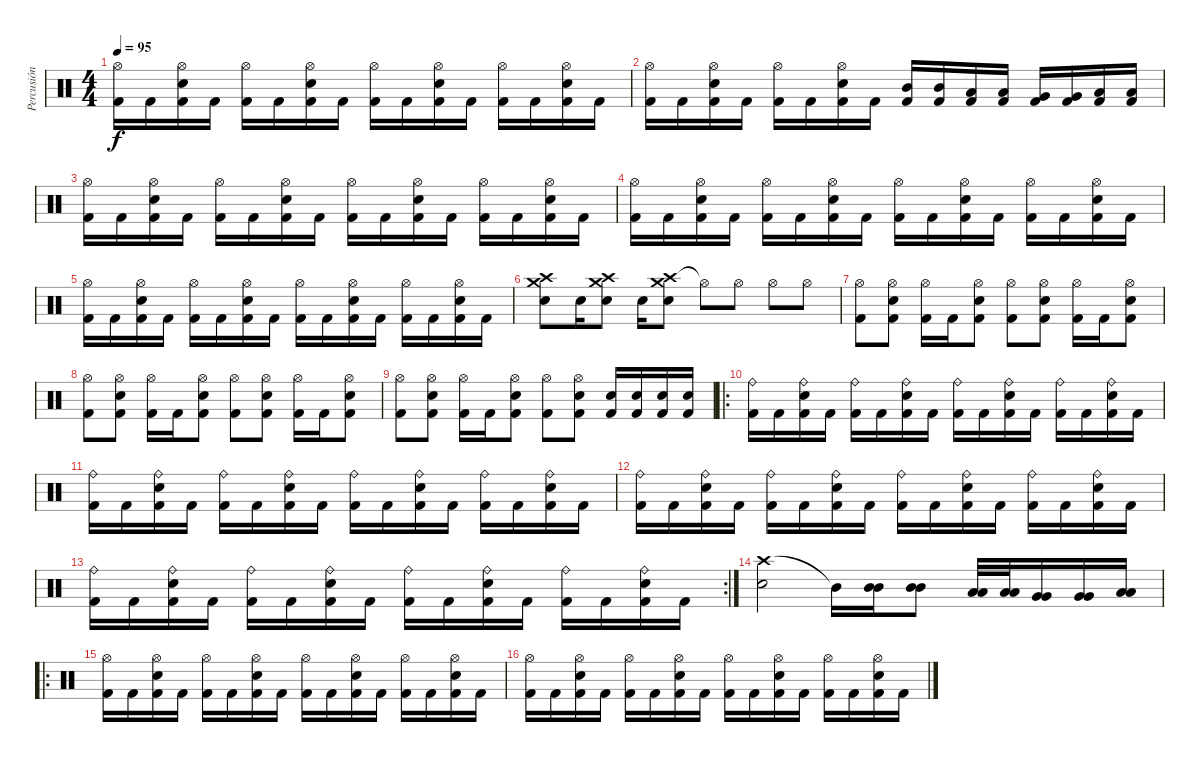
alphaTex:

\track ("Percusión" "Percusión") {instrument percussion}
\staff {score}
\articulation defaults
\ts (4 4)
\tempo 95
\clef neutral
\ks c
("Kick (hit) 2" "Hi-Hat (open)").16{dy f} "Kick (hit) 2".16 ("Kick (hit) 2" "Hi-Hat (open)" "Electric Snare (hit)").16 "Kick (hit) 2".16 ("Kick (hit) 2" "Hi-Hat (open)").16 "Kick (hit) 2".16 ("Kick (hit) 2" "Hi-Hat (open)" "Electric Snare (hit)").16 "Kick (hit) 2".16 ("Kick (hit) 2" "Hi-Hat (open)").16 "Kick (hit) 2".16 ("Kick (hit) 2" "Hi-Hat (open)" "Electric Snare (hit)").16 "Kick (hit) 2".16 ("Kick (hit) 2" "Hi-Hat (open)").16 "Kick (hit) 2".16 ("Kick (hit) 2" "Hi-Hat (open)" "Electric Snare (hit)").16 "Kick (hit) 2".16 |
("Kick (hit) 2" "Hi-Hat (open)").16 "Kick (hit) 2".16 ("Kick (hit) 2" "Hi-Hat (open)" "Electric Snare (hit)").16 "Kick (hit) 2".16 ("Kick (hit) 2" "Hi-Hat (open)").16 "Kick (hit) 2".16 ("Kick (hit) 2" "Hi-Hat (open)" "Electric Snare (hit)").16 "Kick (hit) 2".16 ("Kick (hit) 2" "Mid Tom (hit)").16 ("Kick (hit) 2" "Mid Tom (hit)").16 ("Kick (hit) 2" "Low Tom (hit)").16 ("Kick (hit) 2" "Low Tom (hit)").16 ("Kick (hit) 2" "Very Low Tom (hit)").16 ("Kick (hit) 2" "Very Low Tom (hit)").16 ("Kick (hit) 2" "Low Floor Tom (hit)").16 ("Kick (hit) 2" "Low Floor Tom (hit)").16 |
("Kick (hit) 2" "Hi-Hat (open)").16 "Kick (hit) 2".16 ("Kick (hit) 2" "Hi-Hat (open)" "Electric Snare (hit)").16 "Kick (hit) 2".16 ("Kick (hit) 2" "Hi-Hat (open)").16 "Kick (hit) 2".16 ("Kick (hit) 2" "Hi-Hat (open)" "Electric Snare (hit)").16 "Kick (hit) 2".16 ("Kick (hit) 2" "Hi-Hat (open)").16 "Kick (hit) 2".16 ("Kick (hit) 2" "Hi-Hat (open)" "Electric Snare (hit)").16 "Kick (hit) 2".16 ("Kick (hit) 2" "Hi-Hat (open)").16 "Kick (hit) 2".16 ("Kick (hit) 2" "Hi-Hat (open)" "Electric Snare (hit)").16 "Kick (hit) 2".16 |
("Kick (hit) 2" "Hi-Hat (open)").16 "Kick (hit) 2".16 ("Kick (hit) 2" "Hi-Hat (open)" "Electric Snare (hit)").16 "Kick (hit) 2".16 ("Kick (hit) 2" "Hi-Hat (open)").16 "Kick (hit) 2".16 ("Kick (hit) 2" "Hi-Hat (open)" "Electric Snare (hit)").16 "Kick (hit) 2".16 ("Kick (hit) 2" "Hi-Hat (open)").16 "Kick (hit) 2".16 ("Kick (hit) 2" "Hi-Hat (open)" "Electric Snare (hit)").16 "Kick (hit) 2".16 ("Kick (hit) 2" "Hi-Hat (open)").16 "Kick (hit) 2".16 ("Kick (hit) 2" "Hi-Hat (open)" "Electric Snare (hit)").16 "Kick (hit) 2".16 |
("Kick (hit) 2" "Hi-Hat (open)").16 "Kick (hit) 2".16 ("Kick (hit) 2" "Hi-Hat (open)" "Electric Snare (hit)").16 "Kick (hit) 2".16 ("Kick (hit) 2" "Hi-Hat (open)").16 "Kick (hit) 2".16 ("Kick (hit) 2" "Hi-Hat (open)" "Electric Snare (hit)").16 "Kick (hit) 2".16 ("Kick (hit) 2" "Hi-Hat (open)").16 "Kick (hit) 2".16 ("Kick (hit) 2" "Hi-Hat (open)" "Electric Snare (hit)").16 "Kick (hit) 2".16 ("Kick (hit) 2" "Hi-Hat (open)").16 "Kick (hit) 2".16 ("Kick (hit) 2" "Hi-Hat (open)" "Electric Snare (hit)").16 "Kick (hit) 2".16 |
("Crash high (hit)" "Electric Snare (hit)" "Crash medium (hit)").8 "Electric Snare (hit)".16 ("Crash high (hit)" "Electric Snare (hit)" "Crash medium (hit)").8 "Electric Snare (hit)".16 ("Crash high (hit)" "Electric Snare (hit)" "Crash medium (hit)").8 "Hi-Hat (open)"{t}.8 "Hi-Hat (open)".8 "Hi-Hat (open)".8 "Hi-Hat (open)".8 |
("Kick (hit) 2" "Hi-Hat (open)").8 ("Kick (hit) 2" "Hi-Hat (open)" "Electric Snare (hit)").8 ("Kick (hit) 2" "Hi-Hat (open)").16 "Kick (hit) 2".16 ("Kick (hit) 2" "Hi-Hat (open)" "Electric Snare (hit)").8 ("Kick (hit) 2" "Hi-Hat (open)").8 ("Kick (hit) 2" "Hi-Hat (open)" "Electric Snare (hit)").8 ("Kick (hit) 2" "Hi-Hat (open)").16 "Kick (hit) 2".16 ("Kick (hit) 2" "Hi-Hat (open)" "Electric Snare (hit)").8 |
("Kick (hit) 2" "Hi-Hat (open)").8 ("Kick (hit) 2" "Hi-Hat (open)" "Electric Snare (hit)").8 ("Kick (hit) 2" "Hi-Hat (open)").16 "Kick (hit) 2".16 ("Kick (hit) 2" "Hi-Hat (open)" "Electric Snare (hit)").8 ("Kick (hit) 2" "Hi-Hat (open)").8 ("Kick (hit) 2" "Hi-Hat (open)" "Electric Snare (hit)").8 ("Kick (hit) 2" "Hi-Hat (open)").16 "Kick (hit) 2".16 ("Kick (hit) 2" "Hi-Hat (open)" "Electric Snare (hit)").8 |
("Kick (hit) 2" "Hi-Hat (open)").8 ("Kick (hit) 2" "Hi-Hat (open)" "Electric Snare (hit)").8 ("Kick (hit) 2" "Hi-Hat (open)").16 "Kick (hit) 2".16 ("Kick (hit) 2" "Hi-Hat (open)" "Electric Snare (hit)").8 ("Kick (hit) 2" "Hi-Hat (open)").8 ("Kick (hit) 2" "Hi-Hat (open)" "Electric Snare (hit)").8 ("Kick (hit) 2" "Electric Snare (hit)").16 ("Kick (hit) 2" "Electric Snare (hit)").16 ("Kick (hit) 2" "Electric Snare (hit)").16 ("Kick (hit) 2" "Electric Snare (hit)").16 |
\ro
("Kick (hit) 2" "Ride (bell)").16 "Kick (hit) 2".16 ("Kick (hit) 2" "Ride (bell)" "Electric Snare (hit)").16 "Kick (hit) 2".16 ("Kick (hit) 2" "Ride (bell)").16 "Kick (hit) 2".16 ("Kick (hit) 2" "Ride (bell)" "Electric Snare (hit)").16 "Kick (hit) 2".16 ("Kick (hit) 2" "Ride (bell)").16 "Kick (hit) 2".16 ("Kick (hit) 2" "Ride (bell)" "Electric Snare (hit)").16 "Kick (hit) 2".16 ("Kick (hit) 2" "Ride (bell)").16 "Kick (hit) 2".16 ("Kick (hit) 2" "Ride (bell)" "Electric Snare (hit)").16 "Kick (hit) 2".16 |
("Kick (hit) 2" "Ride (bell)").16 "Kick (hit) 2".16 ("Kick (hit) 2" "Ride (bell)" "Electric Snare (hit)").16 "Kick (hit) 2".16 ("Kick (hit) 2" "Ride (bell)").16 "Kick (hit) 2".16 ("Kick (hit) 2" "Ride (bell)" "Electric Snare (hit)").16 "Kick (hit) 2".16 ("Kick (hit) 2" "Ride (bell)").16 "Kick (hit) 2".16 ("Kick (hit) 2" "Ride (bell)" "Electric Snare (hit)").16 "Kick (hit) 2".16 ("Kick (hit) 2" "Ride (bell)").16 "Kick (hit) 2".16 ("Kick (hit) 2" "Ride (bell)" "Electric Snare (hit)").16 "Kick (hit) 2".16 |
("Kick (hit) 2" "Ride (bell)").16 "Kick (hit) 2".16 ("Kick (hit) 2" "Ride (bell)" "Electric Snare (hit)").16 "Kick (hit) 2".16 ("Kick (hit) 2" "Ride (bell)").16 "Kick (hit) 2".16 ("Kick (hit) 2" "Ride (bell)" "Electric Snare (hit)").16 "Kick (hit) 2".16 ("Kick (hit) 2" "Ride (bell)").16 "Kick (hit) 2".16 ("Kick (hit) 2" "Ride (bell)" "Electric Snare (hit)").16 "Kick (hit) 2".16 ("Kick (hit) 2" "Ride (bell)").16 "Kick (hit) 2".16 ("Kick (hit) 2" "Ride (bell)" "Electric Snare (hit)").16 "Kick (hit) 2".16 |
\rc 2
("Kick (hit) 2" "Ride (bell)").16 "Kick (hit) 2".16 ("Kick (hit) 2" "Ride (bell)" "Electric Snare (hit)").16 "Kick (hit) 2".16 ("Kick (hit) 2" "Ride (bell)").16 "Kick (hit) 2".16 ("Kick (hit) 2" "Ride (bell)" "Electric Snare (hit)").16 "Kick (hit) 2".16 ("Kick (hit) 2" "Ride (bell)").16 "Kick (hit) 2".16 ("Kick (hit) 2" "Ride (bell)" "Electric Snare (hit)").16 "Kick (hit) 2".16 ("Kick (hit) 2" "Ride (bell)").16 "Kick (hit) 2".16 ("Kick (hit) 2" "Ride (bell)" "Electric Snare (hit)").16 "Kick (hit) 2".16 |
("Crash high (hit)" "Electric Snare (hit)").2 "Mid Tom (hit)"{t}.16 ("Mid Tom (hit)" "Mid Tom (hit)").16 ("Mid Tom (hit)" "Mid Tom (hit)").8 ("Low Tom (hit)" "Low Tom (hit)").32 ("Low Tom (hit)" "Low Tom (hit)").32 ("Very Low Tom (hit)" "Very Low Tom (hit)").16 ("Very Low Tom (hit)" "Very Low Tom (hit)").16 ("Low Floor Tom (hit)" "Low Floor Tom (hit)").16 |
\ro
("Kick (hit) 2" "Hi-Hat (open)").16 "Kick (hit) 2".16 ("Kick (hit) 2" "Hi-Hat (open)" "Electric Snare (hit)").16 "Kick (hit) 2".16 ("Kick (hit) 2" "Hi-Hat (open)").16 "Kick (hit) 2".16 ("Kick (hit) 2" "Hi-Hat (open)" "Electric Snare (hit)").16 "Kick (hit) 2".16 ("Kick (hit) 2" "Hi-Hat (open)").16 "Kick (hit) 2".16 ("Kick (hit) 2" "Hi-Hat (open)" "Electric Snare (hit)").16 "Kick (hit) 2".16 ("Kick (hit) 2" "Hi-Hat (open)").16 "Kick (hit) 2".16 ("Kick (hit) 2" "Hi-Hat (open)" "Electric Snare (hit)").16 "Kick (hit) 2".16 |
("Kick (hit) 2" "Hi-Hat (open)").16 "Kick (hit) 2".16 ("Kick (hit) 2" "Hi-Hat (open)" "Electric Snare (hit)").16 "Kick (hit) 2".16 ("Kick (hit) 2" "Hi-Hat (open)").16 "Kick (hit) 2".16 ("Kick (hit) 2" "Hi-Hat (open)" "Electric Snare (hit)").16 "Kick (hit) 2".16 ("Kick (hit) 2" "Hi-Hat (open)").16 "Kick (hit) 2".16 ("Kick (hit) 2" "Hi-Hat (open)" "Electric Snare (hit)").16 "Kick (hit) 2".16 ("Kick (hit) 2" "Hi-Hat (open)").16 "Kick (hit) 2".16 ("Kick (hit) 2" "Hi-Hat (open)" "Electric Snare (hit)").16 "Kick (hit) 2".16
